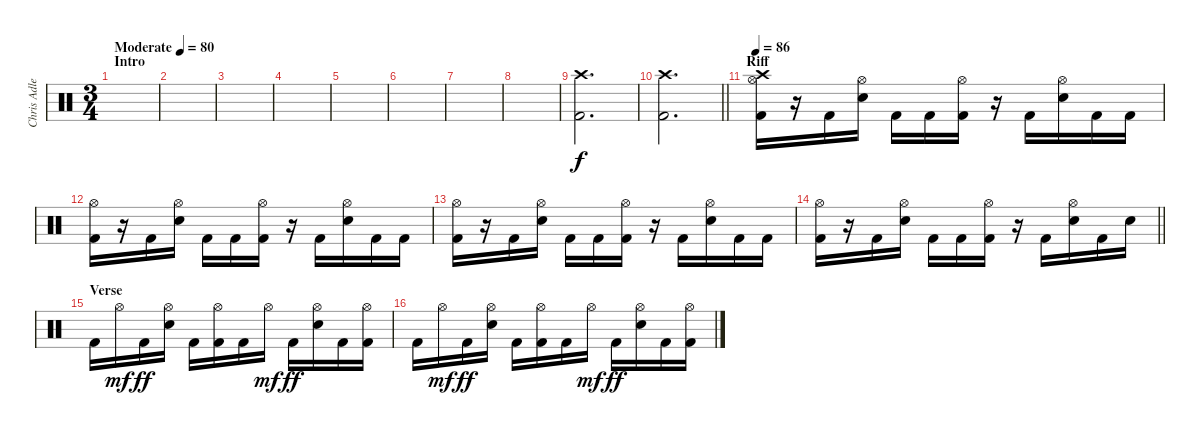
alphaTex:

\track ("Chris Adler" "Chris Adle") {instrument percussion}
\staff {score}
\articulation defaults
\ts (3 4)
\section ("" "Intro")
\tempo (80 "Moderate")
\clef neutral
\ks c
|
|
|
|
|
|
|
|
("Crash high (hit)" "Kick (hit) 2").2{d} |
\barLineRight lightlight
("Crash high (hit)" "Kick (hit) 2").2{d} |
\section ("" "Riff")
\tempo 86
("Crash high (hit)" "Hi-Hat (open)" "Kick (hit) 2").16 r.16 "Kick (hit) 2".16 ("Hi-Hat (open)" "Snare (hit) 2").16 "Kick (hit) 2".16 "Kick (hit) 2".16 ("Hi-Hat (open)" "Kick (hit) 2").16 r.16 "Kick (hit) 2".16 ("Hi-Hat (open)" "Snare (hit) 2").16 "Kick (hit) 2".16 "Kick (hit) 2".16 |
("Hi-Hat (open)" "Kick (hit) 2").16 r.16 "Kick (hit) 2".16 ("Hi-Hat (open)" "Snare (hit) 2").16 "Kick (hit) 2".16 "Kick (hit) 2".16 ("Hi-Hat (open)" "Kick (hit) 2").16 r.16 "Kick (hit) 2".16 ("Hi-Hat (open)" "Snare (hit) 2").16 "Kick (hit) 2".16 "Kick (hit) 2".16 |
("Hi-Hat (open)" "Kick (hit) 2").16 r.16 "Kick (hit) 2".16 ("Hi-Hat (open)" "Snare (hit) 2").16 "Kick (hit) 2".16 "Kick (hit) 2".16 ("Hi-Hat (open)" "Kick (hit) 2").16 r.16 "Kick (hit) 2".16 ("Hi-Hat (open)" "Snare (hit) 2").16 "Kick (hit) 2".16 "Kick (hit) 2".16 |
\barLineRight lightlight
("Hi-Hat (open)" "Kick (hit) 2").16 r.16 "Kick (hit) 2".16 ("Hi-Hat (open)" "Snare (hit) 2").16 "Kick (hit) 2".16 "Kick (hit) 2".16 ("Hi-Hat (open)" "Kick (hit) 2").16 r.16 "Kick (hit) 2".16 ("Hi-Hat (open)" "Snare (hit) 2").16 "Kick (hit) 2".16 "Snare (hit) 2".16 |
\section ("" "Verse")
"Kick (hit) 2".16 "Hi-Hat (open)".16{dy mf} "Kick (hit) 2".16{dy ff} ("Hi-Hat (open)" "Snare (hit) 2").16 "Kick (hit) 2".16 ("Hi-Hat (open)" "Kick (hit) 2").16 "Kick (hit) 2".16 "Hi-Hat (open)".16{dy mf} "Kick (hit) 2".16{dy ff} ("Hi-Hat (open)" "Snare (hit) 2").16 "Kick (hit) 2".16 ("Hi-Hat (open)" "Kick (hit) 2").16 |
"Kick (hit) 2".16 "Hi-Hat (open)".16{dy mf} "Kick (hit) 2".16{dy ff} ("Hi-Hat (open)" "Snare (hit) 2").16 "Kick (hit) 2".16 ("Hi-Hat (open)" "Kick (hit) 2").16 "Kick (hit) 2".16 "Hi-Hat (open)".16{dy mf} "Kick (hit) 2".16{dy ff} ("Hi-Hat (open)" "Snare (hit) 2").16 "Kick (hit) 2".16 ("Hi-Hat (open)" "Kick (hit) 2").16
